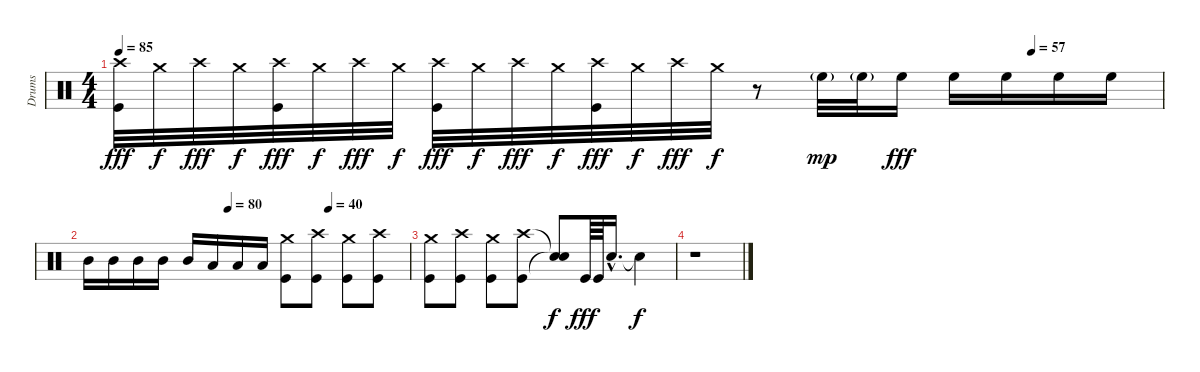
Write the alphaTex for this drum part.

\track ("Drums" "Drums") {instrument percussion}
\staff {score}
\articulation defaults
\ts (4 4)
\tempo 85
\tempo (57 0.875)
\clef neutral
\ks c
("Kick (hit)" "Crash high (hit)").32{dy fff} "Crash medium (hit)".32{dy f} "Crash high (hit)".32{dy fff} "Crash medium (hit)".32{dy f} ("Kick (hit)" "Crash high (hit)").32{dy fff} "Crash medium (hit)".32{dy f} "Crash high (hit)".32{dy fff} "Crash medium (hit)".32{dy f} ("Kick (hit)" "Crash high (hit)").32{dy fff} "Crash medium (hit)".32{dy f} "Crash high (hit)".32{dy fff} "Crash medium (hit)".32{dy f} ("Kick (hit)" "Crash high (hit)").32{dy fff} "Crash medium (hit)".32{dy f} "Crash high (hit)".32{dy fff} "Crash medium (hit)".32{dy f} r.8 "High Floor Tom (hit)"{g}.32{dy mp} "High Floor Tom (hit)"{g}.32 "High Floor Tom (hit)".16{dy fff} "High Floor Tom (hit)".16 "High Floor Tom (hit)".16 "High Floor Tom (hit)".16 "High Floor Tom (hit)".16 |
\tempo (80 0.4375)
\tempo (40 0.75)
"Mid Tom (hit)".16 "Mid Tom (hit)".16 "Mid Tom (hit)".16 "Mid Tom (hit)".16 "Mid Tom (hit)".16 "Low Floor Tom (hit)".16 "Low Floor Tom (hit)".16 "Low Floor Tom (hit)".16 ("Kick (hit)" "Crash medium (hit)").8 ("Kick (hit)" "Crash high (hit)").8 ("Kick (hit)" "Crash medium (hit)").8 ("Kick (hit)" "Crash high (hit)").8 |
("Kick (hit)" "Crash medium (hit)").8 ("Kick (hit)" "Crash high (hit)").8 ("Kick (hit)" "Crash medium (hit)").8 ("Kick (hit)" "Crash high (hit)").8 ("Snare (hit)"{t} "Snare (hit)"{t}).8{dy f} "Kick (hit)".64{dy fff} "Kick (hit)".64 "Electric Snare (hit)"{hac}.16{d} "Snare (hit)"{t}.4{dy f} |
r.1
